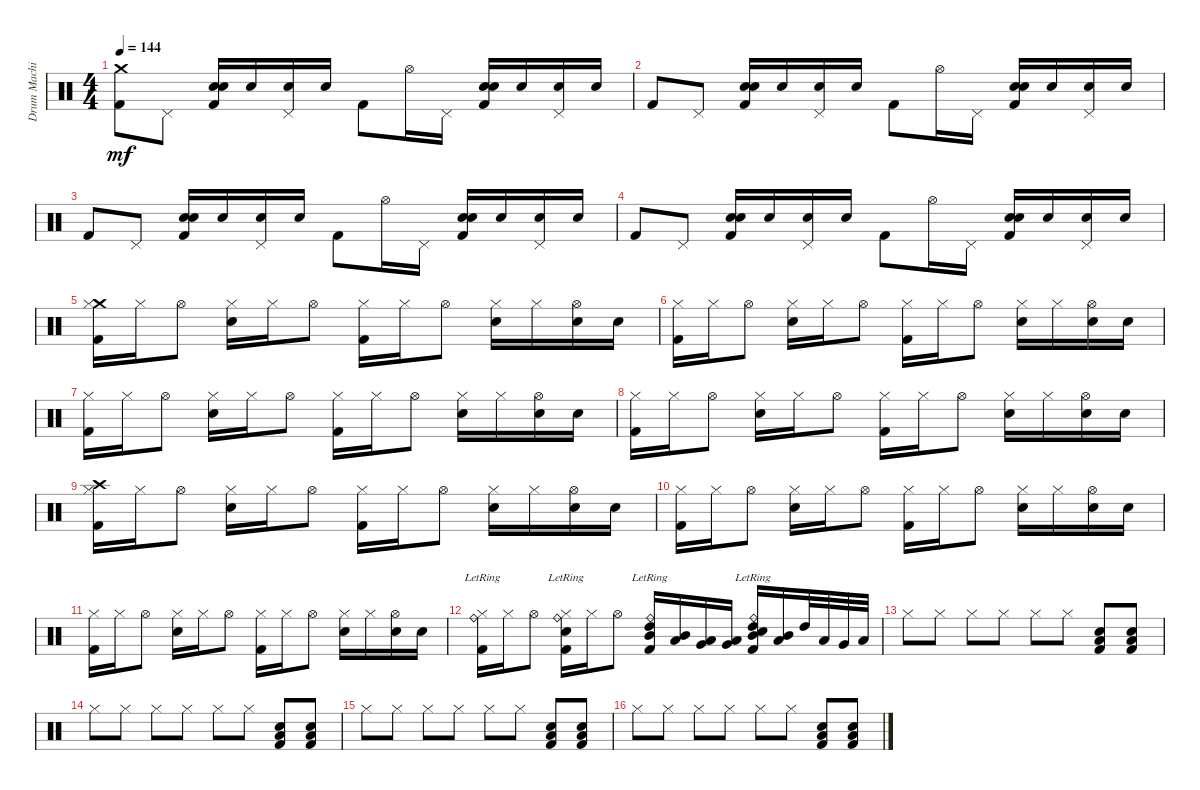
\track ("Drum Machine" "Drum Machi") {instrument percussion}
\staff {score}
\articulation defaults
\ts (4 4)
\tempo 144
\clef neutral
\ks c
("Crash medium (hit)" "Kick (hit) 2").8{dy mf} "Pedal Hi-Hat (hit)".8 ("Hand Clap (hit)" "Electric Snare (hit)" "Kick (hit) 2").16 "Hand Clap (hit)".16 ("Pedal Hi-Hat (hit)" "Hand Clap (hit)").16 "Hand Clap (hit)".16 "Kick (hit) 2".8 "Hi-Hat (open)".16 "Pedal Hi-Hat (hit)".16 ("Hand Clap (hit)" "Electric Snare (hit)" "Kick (hit) 2").16 "Hand Clap (hit)".16 ("Pedal Hi-Hat (hit)" "Hand Clap (hit)").16 "Hand Clap (hit)".16 |
"Kick (hit) 2".8 "Pedal Hi-Hat (hit)".8 ("Hand Clap (hit)" "Electric Snare (hit)" "Kick (hit) 2").16 "Hand Clap (hit)".16 ("Pedal Hi-Hat (hit)" "Hand Clap (hit)").16 "Hand Clap (hit)".16 "Kick (hit) 2".8 "Hi-Hat (open)".16 "Pedal Hi-Hat (hit)".16 ("Hand Clap (hit)" "Electric Snare (hit)" "Kick (hit) 2").16 "Hand Clap (hit)".16 ("Pedal Hi-Hat (hit)" "Hand Clap (hit)").16 "Hand Clap (hit)".16 |
"Kick (hit) 2".8 "Pedal Hi-Hat (hit)".8 ("Hand Clap (hit)" "Electric Snare (hit)" "Kick (hit) 2").16 "Hand Clap (hit)".16 ("Pedal Hi-Hat (hit)" "Hand Clap (hit)").16 "Hand Clap (hit)".16 "Kick (hit) 2".8 "Hi-Hat (open)".16 "Pedal Hi-Hat (hit)".16 ("Hand Clap (hit)" "Electric Snare (hit)" "Kick (hit) 2").16 "Hand Clap (hit)".16 ("Pedal Hi-Hat (hit)" "Hand Clap (hit)").16 "Hand Clap (hit)".16 |
"Kick (hit) 2".8 "Pedal Hi-Hat (hit)".8 ("Hand Clap (hit)" "Electric Snare (hit)" "Kick (hit) 2").16 "Hand Clap (hit)".16 ("Pedal Hi-Hat (hit)" "Hand Clap (hit)").16 "Hand Clap (hit)".16 "Kick (hit) 2".8 "Hi-Hat (open)".16 "Pedal Hi-Hat (hit)".16 ("Hand Clap (hit)" "Electric Snare (hit)" "Kick (hit) 2").16 "Hand Clap (hit)".16 ("Pedal Hi-Hat (hit)" "Hand Clap (hit)").16 "Hand Clap (hit)".16 |
("Crash medium (hit)" "Hi-Hat (closed)" "Kick (hit) 2").16 "Hi-Hat (closed)".16 "Hi-Hat (open)".8 ("Hi-Hat (closed)" "Hand Clap (hit)").16 "Hi-Hat (closed)".16 "Hi-Hat (open)".8 ("Hi-Hat (closed)" "Kick (hit) 2").16 "Hi-Hat (closed)".16 "Hi-Hat (open)".8 ("Hi-Hat (closed)" "Hand Clap (hit)").16 "Hi-Hat (closed)".16 ("Hi-Hat (open)" "Hand Clap (hit)").16 "Hand Clap (hit)".16 |
("Hi-Hat (closed)" "Kick (hit) 2").16 "Hi-Hat (closed)".16 "Hi-Hat (open)".8 ("Hi-Hat (closed)" "Hand Clap (hit)").16 "Hi-Hat (closed)".16 "Hi-Hat (open)".8 ("Hi-Hat (closed)" "Kick (hit) 2").16 "Hi-Hat (closed)".16 "Hi-Hat (open)".8 ("Hi-Hat (closed)" "Hand Clap (hit)").16 "Hi-Hat (closed)".16 ("Hi-Hat (open)" "Hand Clap (hit)").16 "Hand Clap (hit)".16 |
("Hi-Hat (closed)" "Kick (hit) 2").16 "Hi-Hat (closed)".16 "Hi-Hat (open)".8 ("Hi-Hat (closed)" "Hand Clap (hit)").16 "Hi-Hat (closed)".16 "Hi-Hat (open)".8 ("Hi-Hat (closed)" "Kick (hit) 2").16 "Hi-Hat (closed)".16 "Hi-Hat (open)".8 ("Hi-Hat (closed)" "Hand Clap (hit)").16 "Hi-Hat (closed)".16 ("Hi-Hat (open)" "Hand Clap (hit)").16 "Hand Clap (hit)".16 |
("Hi-Hat (closed)" "Kick (hit) 2").16 "Hi-Hat (closed)".16 "Hi-Hat (open)".8 ("Hi-Hat (closed)" "Hand Clap (hit)").16 "Hi-Hat (closed)".16 "Hi-Hat (open)".8 ("Hi-Hat (closed)" "Kick (hit) 2").16 "Hi-Hat (closed)".16 "Hi-Hat (open)".8 ("Hi-Hat (closed)" "Hand Clap (hit)").16 "Hi-Hat (closed)".16 ("Hi-Hat (open)" "Hand Clap (hit)").16 "Hand Clap (hit)".16 |
("Crash high (hit)" "Hi-Hat (closed)" "Kick (hit) 2").16 "Hi-Hat (closed)".16 "Hi-Hat (open)".8 ("Hi-Hat (closed)" "Hand Clap (hit)").16 "Hi-Hat (closed)".16 "Hi-Hat (open)".8 ("Hi-Hat (closed)" "Kick (hit) 2").16 "Hi-Hat (closed)".16 "Hi-Hat (open)".8 ("Hi-Hat (closed)" "Hand Clap (hit)").16 "Hi-Hat (closed)".16 ("Hi-Hat (open)" "Hand Clap (hit)").16 "Hand Clap (hit)".16 |
("Hi-Hat (closed)" "Kick (hit) 2").16 "Hi-Hat (closed)".16 "Hi-Hat (open)".8 ("Hi-Hat (closed)" "Hand Clap (hit)").16 "Hi-Hat (closed)".16 "Hi-Hat (open)".8 ("Hi-Hat (closed)" "Kick (hit) 2").16 "Hi-Hat (closed)".16 "Hi-Hat (open)".8 ("Hi-Hat (closed)" "Hand Clap (hit)").16 "Hi-Hat (closed)".16 ("Hi-Hat (open)" "Hand Clap (hit)").16 "Hand Clap (hit)".16 |
("Hi-Hat (closed)" "Kick (hit) 2").16 "Hi-Hat (closed)".16 "Hi-Hat (open)".8 ("Hi-Hat (closed)" "Hand Clap (hit)").16 "Hi-Hat (closed)".16 "Hi-Hat (open)".8 ("Hi-Hat (closed)" "Kick (hit) 2").16 "Hi-Hat (closed)".16 "Hi-Hat (open)".8 ("Hi-Hat (closed)" "Hand Clap (hit)").16 "Hi-Hat (closed)".16 ("Hi-Hat (open)" "Hand Clap (hit)").16 "Hand Clap (hit)".16 |
("Ride (bell)"{lr} "Hi-Hat (closed)" "Kick (hit) 2").16 "Hi-Hat (closed)".16 "Hi-Hat (open)".8 ("Ride (bell)"{lr} "Hi-Hat (closed)" "Hand Clap (hit)" "Kick (hit) 2").16 "Hi-Hat (closed)".16 "Hi-Hat (open)".8 ("Ride (bell)"{lr} "High Tom (hit)" "Mid Tom (hit)" "Kick (hit) 2").16 ("Mid Tom (hit)" "Low Tom (hit)").16 ("Low Tom (hit)" "Very Low Tom (hit)").16 ("Very Low Tom (hit)" "Low Floor Tom (hit)").16 ("Ride (bell)"{lr} "Hand Clap (hit)" "High Tom (hit)" "Mid Tom (hit)" "Kick (hit) 2").16 ("Mid Tom (hit)" "Low Tom (hit)").16 "High Tom (hit)".32 "Low Tom (hit)".32 "Very Low Tom (hit)".32 "Low Floor Tom (hit)".32 |
"Hi-Hat (closed)".8 "Hi-Hat (closed)".8 "Hi-Hat (closed)".8 "Hi-Hat (closed)".8 "Hi-Hat (closed)".8 "Hi-Hat (closed)".8 ("Hand Clap (hit)" "Low Floor Tom (hit)" "Kick (hit) 2").8 ("Hand Clap (hit)" "Low Floor Tom (hit)" "Kick (hit) 2").8 |
"Hi-Hat (closed)".8 "Hi-Hat (closed)".8 "Hi-Hat (closed)".8 "Hi-Hat (closed)".8 "Hi-Hat (closed)".8 "Hi-Hat (closed)".8 ("Hand Clap (hit)" "Low Floor Tom (hit)" "Kick (hit) 2").8 ("Hand Clap (hit)" "Low Floor Tom (hit)" "Kick (hit) 2").8 |
"Hi-Hat (closed)".8 "Hi-Hat (closed)".8 "Hi-Hat (closed)".8 "Hi-Hat (closed)".8 "Hi-Hat (closed)".8 "Hi-Hat (closed)".8 ("Hand Clap (hit)" "Low Floor Tom (hit)" "Kick (hit) 2").8 ("Hand Clap (hit)" "Low Floor Tom (hit)" "Kick (hit) 2").8 |
"Hi-Hat (closed)".8 "Hi-Hat (closed)".8 "Hi-Hat (closed)".8 "Hi-Hat (closed)".8 "Hi-Hat (closed)".8 "Hi-Hat (closed)".8 ("Hand Clap (hit)" "Low Floor Tom (hit)" "Kick (hit) 2").8 ("Hand Clap (hit)" "Low Floor Tom (hit)" "Kick (hit) 2").8
